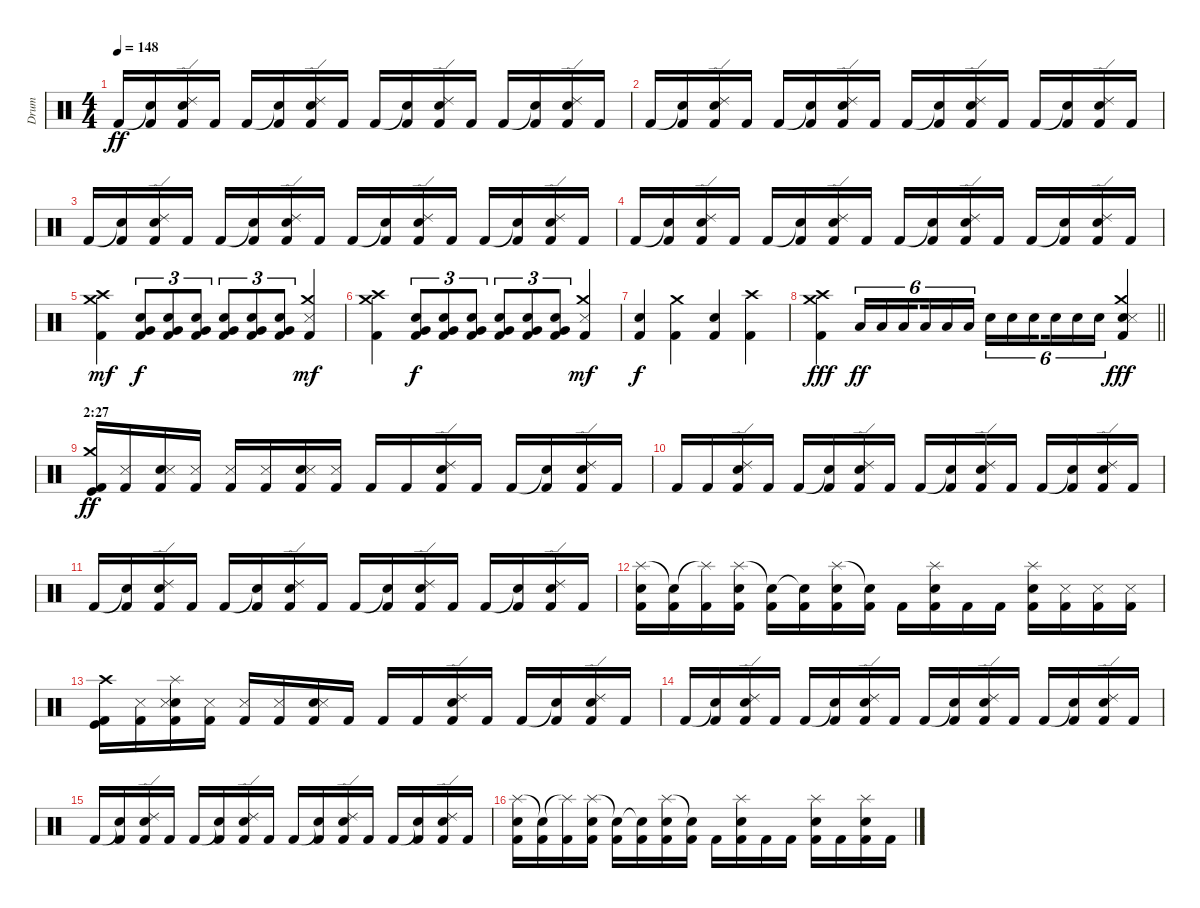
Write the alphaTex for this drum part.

\track ("Drum" "Drum") {instrument percussion}
\staff {score}
\articulation defaults
\ts (4 4)
\tempo 148
\clef neutral
\ks c "Kick (hit) 2".16{dy ff}
("Snare (hit)"{t} "Kick (hit) 2").16 ("Ride (edge) 2" "Snare (hit) 2" "Kick (hit) 2").16 "Kick (hit) 2".16 "Kick (hit) 2".16 ("Snare (hit)"{t} "Kick (hit) 2").16 ("Ride (edge) 2" "Snare (hit) 2" "Kick (hit) 2").16 "Kick (hit) 2".16 "Kick (hit) 2".16 ("Snare (hit)"{t} "Kick (hit) 2").16 ("Ride (edge) 2" "Snare (hit) 2" "Kick (hit) 2").16 "Kick (hit) 2".16 "Kick (hit) 2".16 ("Snare (hit)"{t} "Kick (hit) 2").16 ("Ride (edge) 2" "Snare (hit) 2" "Kick (hit) 2").16 "Kick (hit) 2".16 |
"Kick (hit) 2".16 ("Snare (hit)"{t} "Kick (hit) 2").16 ("Ride (edge) 2" "Snare (hit) 2" "Kick (hit) 2").16 "Kick (hit) 2".16 "Kick (hit) 2".16 ("Snare (hit)"{t} "Kick (hit) 2").16 ("Ride (edge) 2" "Snare (hit) 2" "Kick (hit) 2").16 "Kick (hit) 2".16 "Kick (hit) 2".16 ("Snare (hit)"{t} "Kick (hit) 2").16 ("Ride (edge) 2" "Snare (hit) 2" "Kick (hit) 2").16 "Kick (hit) 2".16 "Kick (hit) 2".16 ("Snare (hit)"{t} "Kick (hit) 2").16 ("Ride (edge) 2" "Snare (hit) 2" "Kick (hit) 2").16 "Kick (hit) 2".16 |
"Kick (hit) 2".16 ("Snare (hit)"{t} "Kick (hit) 2").16 ("Ride (edge) 2" "Snare (hit) 2" "Kick (hit) 2").16 "Kick (hit) 2".16 "Kick (hit) 2".16 ("Snare (hit)"{t} "Kick (hit) 2").16 ("Ride (edge) 2" "Snare (hit) 2" "Kick (hit) 2").16 "Kick (hit) 2".16 "Kick (hit) 2".16 ("Snare (hit)"{t} "Kick (hit) 2").16 ("Ride (edge) 2" "Snare (hit) 2" "Kick (hit) 2").16 "Kick (hit) 2".16 "Kick (hit) 2".16 ("Snare (hit)"{t} "Kick (hit) 2").16 ("Ride (edge) 2" "Snare (hit) 2" "Kick (hit) 2").16 "Kick (hit) 2".16 |
"Kick (hit) 2".16 ("Snare (hit)"{t} "Kick (hit) 2").16 ("Ride (edge) 2" "Snare (hit) 2" "Kick (hit) 2").16 "Kick (hit) 2".16 "Kick (hit) 2".16 ("Snare (hit)"{t} "Kick (hit) 2").16 ("Ride (edge) 2" "Snare (hit) 2" "Kick (hit) 2").16 "Kick (hit) 2".16 "Kick (hit) 2".16 ("Snare (hit)"{t} "Kick (hit) 2").16 ("Ride (edge) 2" "Snare (hit) 2" "Kick (hit) 2").16 "Kick (hit) 2".16 "Kick (hit) 2".16 ("Snare (hit)"{t} "Kick (hit) 2").16 ("Ride (edge) 2" "Snare (hit) 2" "Kick (hit) 2").16 "Kick (hit) 2".16 |
("Crash high (hit)" "Crash medium (hit)" "Kick (hit) 2").4{dy mf} ("Very Low Tom (hit)" "Snare (hit) 2" "Kick (hit) 2").8{tu (3 2) dy f} ("Very Low Tom (hit)" "Snare (hit) 2" "Kick (hit) 2").8{tu (3 2)} ("Very Low Tom (hit)" "Snare (hit) 2" "Kick (hit) 2").8{tu (3 2)} ("Very Low Tom (hit)" "Snare (hit) 2" "Kick (hit) 2").8{tu (3 2)} ("Very Low Tom (hit)" "Snare (hit) 2" "Kick (hit) 2").8{tu (3 2)} ("Very Low Tom (hit)" "Snare (hit) 2" "Kick (hit) 2").8{tu (3 2)} ("Crash medium (hit)" "Metronome (hit)" "Kick (hit) 2").4{dy mf} |
("Crash high (hit)" "Crash medium (hit)" "Kick (hit) 2").4 ("Very Low Tom (hit)" "Snare (hit) 2" "Kick (hit) 2").8{tu (3 2) dy f} ("Very Low Tom (hit)" "Snare (hit) 2" "Kick (hit) 2").8{tu (3 2)} ("Very Low Tom (hit)" "Snare (hit) 2" "Kick (hit) 2").8{tu (3 2)} ("Very Low Tom (hit)" "Snare (hit) 2" "Kick (hit) 2").8{tu (3 2)} ("Very Low Tom (hit)" "Snare (hit) 2" "Kick (hit) 2").8{tu (3 2)} ("Very Low Tom (hit)" "Snare (hit) 2" "Kick (hit) 2").8{tu (3 2)} ("Crash medium (hit)" "Metronome (hit)" "Kick (hit) 2").4{dy mf} |
("Snare (hit) 2" "Kick (hit) 2").4{dy f} ("Crash medium (hit)" "Kick (hit) 2").4 ("Snare (hit) 2" "Kick (hit) 2").4 ("Crash high (hit)" "Kick (hit) 2").4 |
\barLineRight lightlight
("Crash medium (hit)" "Crash high (hit)" "Kick (hit) 2").4{dy fff} "Low Tom (hit)".16{tu (6 4) dy ff} "Low Tom (hit)".16{tu (6 4)} "Low Tom (hit)".16{tu (6 4) beam splitsecondary} "Low Tom (hit)".16{tu (6 4)} "Low Tom (hit)".16{tu (6 4)} "Low Tom (hit)".16{tu (6 4)} "Snare (hit) 2".16{tu (6 4)} "Snare (hit) 2".16{tu (6 4)} "Snare (hit) 2".16{tu (6 4) beam splitsecondary} "Snare (hit) 2".16{tu (6 4)} "Snare (hit) 2".16{tu (6 4)} "Snare (hit) 2".16{tu (6 4)} ("Crash medium (hit)" "Snare (hit) 2" "Snare (side stick) 3" "Kick (hit) 2").4{dy fff} |
\section ("" "2:27")
("Crash medium (hit)" "Kick (hit)" "Kick (hit) 2").16{dy ff} ("Metronome (hit)" "Kick (hit) 2").16 ("Snare (hit) 2" "Metronome (hit)" "Kick (hit) 2").16 ("Metronome (hit)" "Kick (hit) 2").16 ("Metronome (hit)" "Kick (hit) 2").16 ("Metronome (hit)" "Kick (hit) 2").16 ("Snare (hit) 2" "Metronome (hit)" "Kick (hit) 2").16 ("Metronome (hit)" "Kick (hit) 2").16 "Kick (hit) 2".16 "Kick (hit) 2".16 ("Ride (edge) 2" "Snare (hit) 2" "Kick (hit) 2").16 "Kick (hit) 2".16 "Kick (hit) 2".16 ("Snare (hit)"{t} "Kick (hit) 2").16 ("Ride (edge) 2" "Snare (hit) 2" "Kick (hit) 2").16 "Kick (hit) 2".16 |
"Kick (hit) 2".16 "Kick (hit) 2".16 ("Ride (edge) 2" "Snare (hit) 2" "Kick (hit) 2").16 "Kick (hit) 2".16 "Kick (hit) 2".16 ("Snare (hit)"{t} "Kick (hit) 2").16 ("Ride (edge) 2" "Snare (hit) 2" "Kick (hit) 2").16 "Kick (hit) 2".16 "Kick (hit) 2".16 ("Snare (hit)"{t} "Kick (hit) 2").16 ("Ride (edge) 2" "Snare (hit) 2" "Kick (hit) 2").16 "Kick (hit) 2".16 "Kick (hit) 2".16 ("Snare (hit)"{t} "Kick (hit) 2").16 ("Ride (edge) 2" "Snare (hit) 2" "Kick (hit) 2").16 "Kick (hit) 2".16 |
"Kick (hit) 2".16 ("Snare (hit)"{t} "Kick (hit) 2").16 ("Ride (edge) 2" "Snare (hit) 2" "Kick (hit) 2").16 "Kick (hit) 2".16 "Kick (hit) 2".16 ("Snare (hit)"{t} "Kick (hit) 2").16 ("Ride (edge) 2" "Snare (hit) 2" "Kick (hit) 2").16 "Kick (hit) 2".16 "Kick (hit) 2".16 ("Snare (hit)"{t} "Kick (hit) 2").16 ("Ride (edge) 2" "Snare (hit) 2" "Kick (hit) 2").16 "Kick (hit) 2".16 "Kick (hit) 2".16 ("Snare (hit)"{t} "Kick (hit) 2").16 ("Ride (edge) 2" "Snare (hit) 2" "Kick (hit) 2").16 "Kick (hit) 2".16 |
("Splash (hit)" "Snare (hit) 2" "Kick (hit) 2").16 ("Snare (hit)"{t} "Kick (hit) 2").16 ("Splash (hit)"{t} "Kick (hit) 2").16 ("Splash (hit)" "Snare (hit) 2" "Kick (hit) 2").16 ("Snare (hit)"{t} "Kick (hit) 2").16 ("Snare (hit)"{t} "Kick (hit) 2").16 ("Splash (hit)" "Snare (hit) 2" "Kick (hit) 2").16 ("Snare (hit)"{t} "Kick (hit) 2").16 "Kick (hit) 2".16 ("Splash (hit)" "Snare (hit) 2" "Kick (hit) 2").16 "Kick (hit) 2".16 "Kick (hit) 2".16 ("Splash (hit)" "Snare (hit) 2" "Kick (hit) 2").16 ("Metronome (hit)" "Kick (hit) 2").16 ("Metronome (hit)" "Kick (hit) 2").16 ("Metronome (hit)" "Kick (hit) 2").16 |
("Crash high (hit)" "Kick (hit)" "Kick (hit) 2").16 ("Metronome (hit)" "Kick (hit) 2").16 ("Splash (hit)" "Snare (hit) 2" "Metronome (hit)" "Kick (hit) 2").16 ("Metronome (hit)" "Kick (hit) 2").16 ("Metronome (hit)" "Kick (hit) 2").16 ("Metronome (hit)" "Kick (hit) 2").16 ("Snare (hit) 2" "Metronome (hit)" "Kick (hit) 2").16 "Kick (hit) 2".16 "Kick (hit) 2".16 "Kick (hit) 2".16 ("Ride (edge) 2" "Snare (hit) 2" "Kick (hit) 2").16 "Kick (hit) 2".16 "Kick (hit) 2".16 ("Snare (hit)"{t} "Kick (hit) 2").16 ("Ride (edge) 2" "Snare (hit) 2" "Kick (hit) 2").16 "Kick (hit) 2".16 |
"Kick (hit) 2".16 ("Snare (hit)"{t} "Kick (hit) 2").16 ("Ride (edge) 2" "Snare (hit) 2" "Kick (hit) 2").16 "Kick (hit) 2".16 "Kick (hit) 2".16 ("Snare (hit)"{t} "Kick (hit) 2").16 ("Ride (edge) 2" "Snare (hit) 2" "Kick (hit) 2").16 "Kick (hit) 2".16 "Kick (hit) 2".16 ("Snare (hit)"{t} "Kick (hit) 2").16 ("Ride (edge) 2" "Snare (hit) 2" "Kick (hit) 2").16 "Kick (hit) 2".16 "Kick (hit) 2".16 ("Snare (hit)"{t} "Kick (hit) 2").16 ("Ride (edge) 2" "Snare (hit) 2" "Kick (hit) 2").16 "Kick (hit) 2".16 |
"Kick (hit) 2".16 ("Snare (hit)"{t} "Kick (hit) 2").16 ("Ride (edge) 2" "Snare (hit) 2" "Kick (hit) 2").16 "Kick (hit) 2".16 "Kick (hit) 2".16 ("Snare (hit)"{t} "Kick (hit) 2").16 ("Ride (edge) 2" "Snare (hit) 2" "Kick (hit) 2").16 "Kick (hit) 2".16 "Kick (hit) 2".16 ("Snare (hit)"{t} "Kick (hit) 2").16 ("Ride (edge) 2" "Snare (hit) 2" "Kick (hit) 2").16 "Kick (hit) 2".16 "Kick (hit) 2".16 ("Snare (hit)"{t} "Kick (hit) 2").16 ("Ride (edge) 2" "Snare (hit) 2" "Kick (hit) 2").16 "Kick (hit) 2".16 |
("Splash (hit)" "Snare (hit) 2" "Kick (hit) 2").16 ("Snare (hit)"{t} "Kick (hit) 2").16 ("Splash (hit)"{t} "Kick (hit) 2").16 ("Splash (hit)" "Snare (hit) 2" "Kick (hit) 2").16 ("Snare (hit)"{t} "Kick (hit) 2").16 ("Snare (hit)"{t} "Kick (hit) 2").16 ("Splash (hit)" "Snare (hit) 2" "Kick (hit) 2").16 ("Snare (hit)"{t} "Kick (hit) 2").16 "Kick (hit) 2".16 ("Splash (hit)" "Snare (hit) 2" "Kick (hit) 2").16 "Kick (hit) 2".16 "Kick (hit) 2".16 ("Splash (hit)" "Snare (hit) 2" "Kick (hit) 2").16 "Kick (hit) 2".16 ("Splash (hit)" "Snare (hit) 2" "Kick (hit) 2").16 "Kick (hit) 2".16
